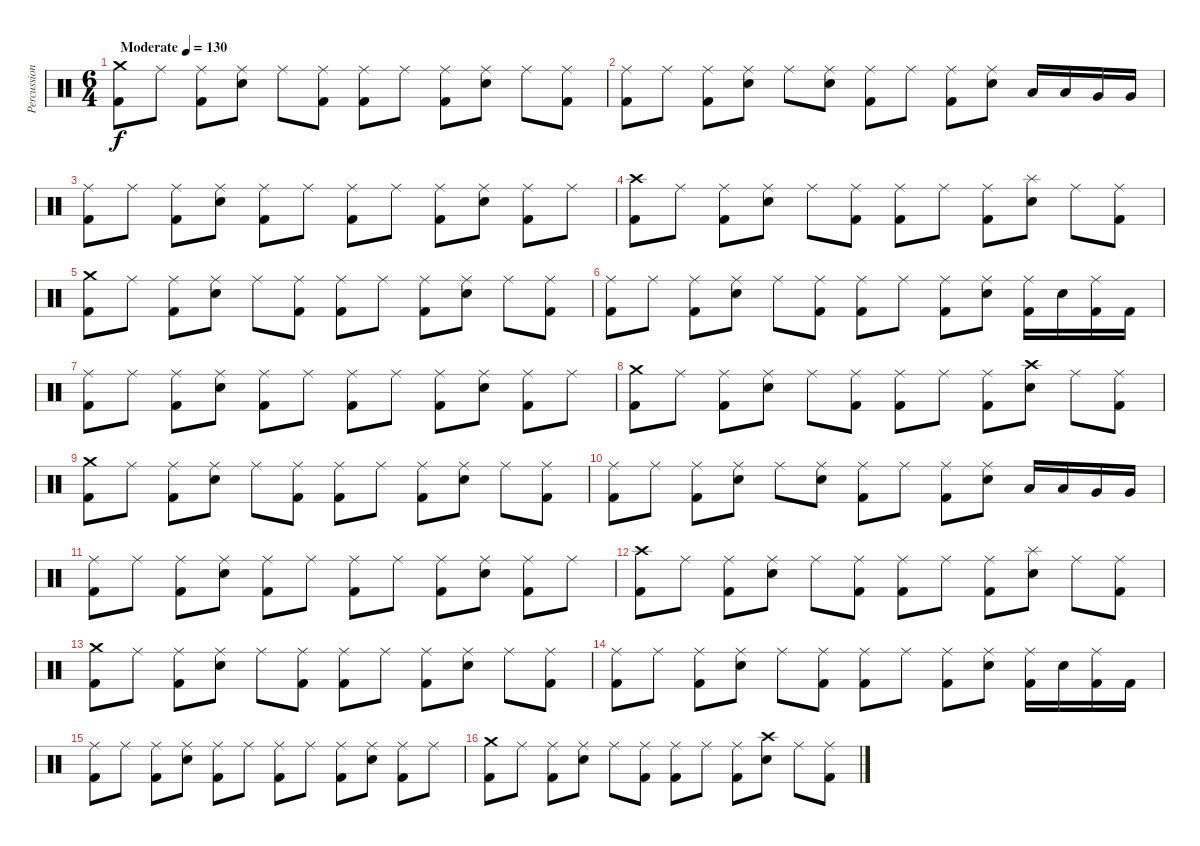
\track ("Percussion" "Percussion") {instrument percussion}
\staff {score}
\articulation defaults
\ts (6 4)
\tempo (130 "Moderate")
\clef neutral
\ks c
("Crash medium (hit)" "Kick (hit) 2").8{dy f} "Ride (middle)".8 ("Ride (middle)" "Kick (hit) 2").8 ("Ride (middle)" "Snare (hit) 2").8 "Ride (middle)".8 ("Ride (middle)" "Kick (hit) 2").8 ("Ride (middle)" "Kick (hit) 2").8 "Ride (middle)".8 ("Ride (middle)" "Kick (hit) 2").8 ("Ride (middle)" "Snare (hit) 2").8 "Ride (middle)".8 ("Ride (middle)" "Kick (hit) 2").8 |
("Ride (middle)" "Kick (hit) 2").8 "Ride (middle)".8 ("Ride (middle)" "Kick (hit) 2").8 ("Ride (middle)" "Snare (hit) 2").8 "Ride (middle)".8 ("Ride (middle)" "Snare (hit) 2").8 ("Ride (middle)" "Kick (hit) 2").8 "Ride (middle)".8 ("Ride (middle)" "Kick (hit) 2").8 ("Ride (middle)" "Snare (hit) 2").8 "Low Tom (hit)".16 "Low Tom (hit)".16 "Very Low Tom (hit)".16 "Very Low Tom (hit)".16 |
("Ride (middle)" "Kick (hit) 2").8 "Ride (middle)".8 ("Ride (middle)" "Kick (hit) 2").8 ("Ride (middle)" "Snare (hit) 2").8 ("Ride (middle)" "Kick (hit) 2").8 "Ride (middle)".8 ("Ride (middle)" "Kick (hit) 2").8 "Ride (middle)".8 ("Ride (middle)" "Kick (hit) 2").8 ("Ride (middle)" "Snare (hit) 2").8 ("Ride (middle)" "Kick (hit) 2").8 "Ride (middle)".8 |
("Crash high (hit)" "Kick (hit) 2").8 "Ride (middle)".8 ("Ride (middle)" "Kick (hit) 2").8 ("Ride (middle)" "Snare (hit) 2").8 "Ride (middle)".8 ("Ride (middle)" "Kick (hit) 2").8 ("Ride (middle)" "Kick (hit) 2").8 "Ride (middle)".8 ("Ride (middle)" "Kick (hit) 2").8 ("Splash (hit)" "Snare (hit) 2").8 "Ride (middle)".8 ("Ride (middle)" "Kick (hit) 2").8 |
("Crash medium (hit)" "Kick (hit) 2").8 "Ride (middle)".8 ("Ride (middle)" "Kick (hit) 2").8 ("Ride (middle)" "Snare (hit) 2").8 "Ride (middle)".8 ("Ride (middle)" "Kick (hit) 2").8 ("Ride (middle)" "Kick (hit) 2").8 "Ride (middle)".8 ("Ride (middle)" "Kick (hit) 2").8 ("Ride (middle)" "Snare (hit) 2").8 "Ride (middle)".8 ("Ride (middle)" "Kick (hit) 2").8 |
("Ride (middle)" "Kick (hit) 2").8 "Ride (middle)".8 ("Ride (middle)" "Kick (hit) 2").8 ("Ride (middle)" "Snare (hit) 2").8 "Ride (middle)".8 ("Ride (middle)" "Kick (hit) 2").8 ("Ride (middle)" "Kick (hit) 2").8 "Ride (middle)".8 ("Ride (middle)" "Kick (hit) 2").8 ("Ride (middle)" "Snare (hit) 2").8 ("Ride (middle)" "Kick (hit) 2").16 "Snare (hit) 2".16 ("Ride (middle)" "Kick (hit) 2").16 "Kick (hit) 2".16 |
("Ride (middle)" "Kick (hit) 2").8 "Ride (middle)".8 ("Ride (middle)" "Kick (hit) 2").8 ("Ride (middle)" "Snare (hit) 2").8 ("Ride (middle)" "Kick (hit) 2").8 "Ride (middle)".8 ("Ride (middle)" "Kick (hit) 2").8 "Ride (middle)".8 ("Ride (middle)" "Kick (hit) 2").8 ("Ride (middle)" "Snare (hit) 2").8 ("Ride (middle)" "Kick (hit) 2").8 "Ride (middle)".8 |
("Crash medium (hit)" "Kick (hit) 2").8 "Ride (middle)".8 ("Ride (middle)" "Kick (hit) 2").8 ("Ride (middle)" "Snare (hit) 2").8 "Ride (middle)".8 ("Ride (middle)" "Kick (hit) 2").8 ("Ride (middle)" "Kick (hit) 2").8 "Ride (middle)".8 ("Ride (middle)" "Kick (hit) 2").8 ("Crash high (hit)" "Snare (hit) 2").8 "Ride (middle)".8 ("Ride (middle)" "Kick (hit) 2").8 |
("Crash medium (hit)" "Kick (hit) 2").8 "Ride (middle)".8 ("Ride (middle)" "Kick (hit) 2").8 ("Ride (middle)" "Snare (hit) 2").8 "Ride (middle)".8 ("Ride (middle)" "Kick (hit) 2").8 ("Ride (middle)" "Kick (hit) 2").8 "Ride (middle)".8 ("Ride (middle)" "Kick (hit) 2").8 ("Ride (middle)" "Snare (hit) 2").8 "Ride (middle)".8 ("Ride (middle)" "Kick (hit) 2").8 |
("Ride (middle)" "Kick (hit) 2").8 "Ride (middle)".8 ("Ride (middle)" "Kick (hit) 2").8 ("Ride (middle)" "Snare (hit) 2").8 "Ride (middle)".8 ("Ride (middle)" "Snare (hit) 2").8 ("Ride (middle)" "Kick (hit) 2").8 "Ride (middle)".8 ("Ride (middle)" "Kick (hit) 2").8 ("Ride (middle)" "Snare (hit) 2").8 "Low Tom (hit)".16 "Low Tom (hit)".16 "Very Low Tom (hit)".16 "Very Low Tom (hit)".16 |
("Ride (middle)" "Kick (hit) 2").8 "Ride (middle)".8 ("Ride (middle)" "Kick (hit) 2").8 ("Ride (middle)" "Snare (hit) 2").8 ("Ride (middle)" "Kick (hit) 2").8 "Ride (middle)".8 ("Ride (middle)" "Kick (hit) 2").8 "Ride (middle)".8 ("Ride (middle)" "Kick (hit) 2").8 ("Ride (middle)" "Snare (hit) 2").8 ("Ride (middle)" "Kick (hit) 2").8 "Ride (middle)".8 |
("Crash high (hit)" "Kick (hit) 2").8 "Ride (middle)".8 ("Ride (middle)" "Kick (hit) 2").8 ("Ride (middle)" "Snare (hit) 2").8 "Ride (middle)".8 ("Ride (middle)" "Kick (hit) 2").8 ("Ride (middle)" "Kick (hit) 2").8 "Ride (middle)".8 ("Ride (middle)" "Kick (hit) 2").8 ("Splash (hit)" "Snare (hit) 2").8 "Ride (middle)".8 ("Ride (middle)" "Kick (hit) 2").8 |
("Crash medium (hit)" "Kick (hit) 2").8 "Ride (middle)".8 ("Ride (middle)" "Kick (hit) 2").8 ("Ride (middle)" "Snare (hit) 2").8 "Ride (middle)".8 ("Ride (middle)" "Kick (hit) 2").8 ("Ride (middle)" "Kick (hit) 2").8 "Ride (middle)".8 ("Ride (middle)" "Kick (hit) 2").8 ("Ride (middle)" "Snare (hit) 2").8 "Ride (middle)".8 ("Ride (middle)" "Kick (hit) 2").8 |
("Ride (middle)" "Kick (hit) 2").8 "Ride (middle)".8 ("Ride (middle)" "Kick (hit) 2").8 ("Ride (middle)" "Snare (hit) 2").8 "Ride (middle)".8 ("Ride (middle)" "Kick (hit) 2").8 ("Ride (middle)" "Kick (hit) 2").8 "Ride (middle)".8 ("Ride (middle)" "Kick (hit) 2").8 ("Ride (middle)" "Snare (hit) 2").8 ("Ride (middle)" "Kick (hit) 2").16 "Snare (hit) 2".16 ("Ride (middle)" "Kick (hit) 2").16 "Kick (hit) 2".16 |
("Ride (middle)" "Kick (hit) 2").8 "Ride (middle)".8 ("Ride (middle)" "Kick (hit) 2").8 ("Ride (middle)" "Snare (hit) 2").8 ("Ride (middle)" "Kick (hit) 2").8 "Ride (middle)".8 ("Ride (middle)" "Kick (hit) 2").8 "Ride (middle)".8 ("Ride (middle)" "Kick (hit) 2").8 ("Ride (middle)" "Snare (hit) 2").8 ("Ride (middle)" "Kick (hit) 2").8 "Ride (middle)".8 |
("Crash medium (hit)" "Kick (hit) 2").8 "Ride (middle)".8 ("Ride (middle)" "Kick (hit) 2").8 ("Ride (middle)" "Snare (hit) 2").8 "Ride (middle)".8 ("Ride (middle)" "Kick (hit) 2").8 ("Ride (middle)" "Kick (hit) 2").8 "Ride (middle)".8 ("Ride (middle)" "Kick (hit) 2").8 ("Crash high (hit)" "Snare (hit) 2").8 "Ride (middle)".8 ("Ride (middle)" "Kick (hit) 2").8
